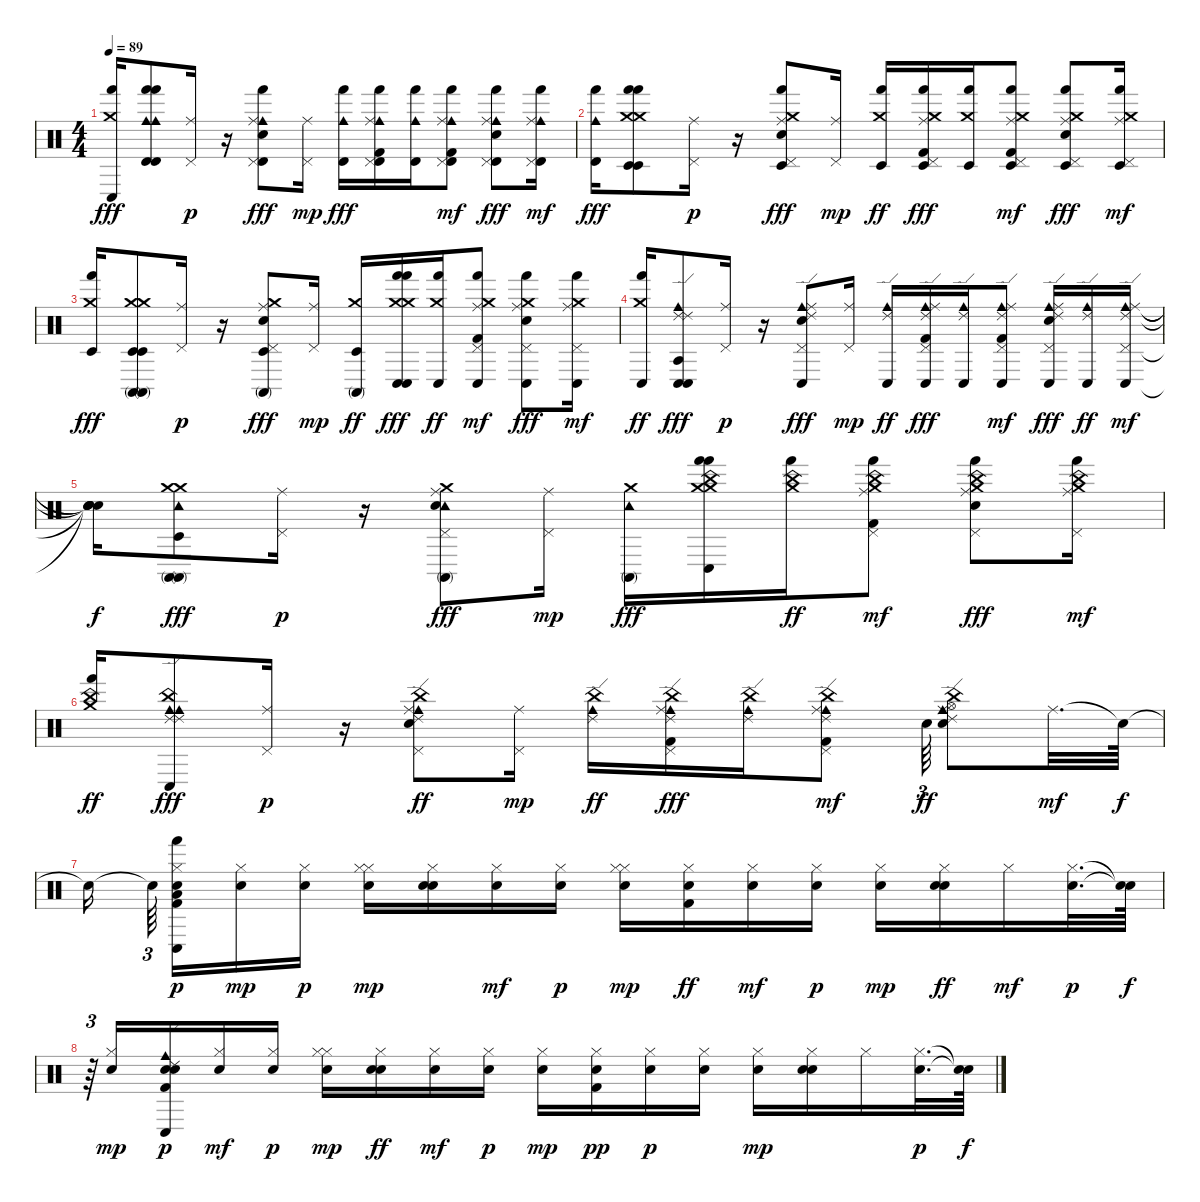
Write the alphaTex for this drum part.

\track "" {instrument percussion}
\staff {score}
\articulation defaults
\ts (4 4)
\tempo 89
\clef neutral
\ks c
("Crash medium (hit)" "Hand (hit)" "Conga low (hit)").16{dy fff} ("Cowbell medium (hit)" "Hand (hit)" "Timbale high (hit)" "Cowbell medium (hit)" "Hand (hit)" "Timbale high (hit)").8 ("Pedal Hi-Hat (hit)" "Ride (middle)").16{dy p} r.16 ("Cowbell medium (hit)" "Hand (hit)" "Timbale high (hit)" "Snare (hit) 2" "Pedal Hi-Hat (hit)" "Ride (middle)").8{dy fff} ("Pedal Hi-Hat (hit)" "Ride (middle)").16{dy mp} ("Cowbell medium (hit)" "Hand (hit)" "Timbale high (hit)").16{dy fff} ("Cowbell medium (hit)" "Hand (hit)" "Timbale high (hit)" "Kick (hit) 2" "Pedal Hi-Hat (hit)" "Ride (middle)").16 ("Cowbell medium (hit)" "Hand (hit)" "Timbale high (hit)").16 ("Cowbell medium (hit)" "Hand (hit)" "Timbale high (hit)" "Kick (hit) 2" "Pedal Hi-Hat (hit)" "Ride (middle)").8{dy mf} ("Cowbell medium (hit)" "Hand (hit)" "Timbale high (hit)" "Snare (hit) 2" "Pedal Hi-Hat (hit)" "Ride (middle)").8{dy fff} ("Cowbell medium (hit)" "Hand (hit)" "Timbale high (hit)" "Pedal Hi-Hat (hit)" "Ride (middle)").16{dy mf} |
("Cowbell medium (hit)" "Hand (hit)" "Timbale high (hit)").16{dy fff} ("Crash medium (hit)" "Hand (hit)" "Timbale low (hit)" "Crash medium (hit)" "Hand (hit)" "Timbale low (hit)").8 ("Pedal Hi-Hat (hit)" "Ride (middle)").16{dy p} r.16 ("Crash medium (hit)" "Hand (hit)" "Timbale low (hit)" "Snare (hit) 2" "Pedal Hi-Hat (hit)" "Ride (middle)").8{dy fff} ("Pedal Hi-Hat (hit)" "Ride (middle)").16{dy mp} ("Crash medium (hit)" "Hand (hit)" "Timbale low (hit)").16{dy ff} ("Crash medium (hit)" "Hand (hit)" "Timbale low (hit)" "Kick (hit) 2" "Pedal Hi-Hat (hit)" "Ride (middle)").16{dy fff} ("Crash medium (hit)" "Hand (hit)" "Timbale low (hit)").16 ("Crash medium (hit)" "Hand (hit)" "Timbale low (hit)" "Kick (hit) 2" "Pedal Hi-Hat (hit)" "Ride (middle)").8{dy mf} ("Crash medium (hit)" "Hand (hit)" "Timbale low (hit)" "Snare (hit) 2" "Pedal Hi-Hat (hit)" "Ride (middle)").8{dy fff} ("Crash medium (hit)" "Hand (hit)" "Timbale low (hit)" "Pedal Hi-Hat (hit)" "Ride (middle)").16{dy mf} |
("Crash medium (hit)" "Hand (hit)" "Timbale low (hit)").16{dy fff} ("Crash medium (hit)" "Conga high (mute)" "Timbale low (hit)" "Crash medium (hit)" "Conga high (mute)" "Timbale low (hit)").8 ("Pedal Hi-Hat (hit)" "Ride (middle)").16{dy p} r.16 ("Crash medium (hit)" "Conga high (mute)" "Timbale low (hit)" "Snare (hit) 2" "Pedal Hi-Hat (hit)" "Ride (middle)").8{dy fff} ("Pedal Hi-Hat (hit)" "Ride (middle)").16{dy mp} ("Crash medium (hit)" "Conga high (mute)" "Timbale low (hit)").16{dy ff} ("Crash medium (hit)" "Hand (hit)" "Conga low (hit)" "Crash medium (hit)" "Hand (hit)" "Conga low (hit)").16{dy fff} ("Crash medium (hit)" "Hand (hit)" "Conga low (hit)").16{dy ff} ("Crash medium (hit)" "Hand (hit)" "Conga low (hit)" "Kick (hit) 2" "Pedal Hi-Hat (hit)" "Ride (middle)").8{dy mf} ("Crash medium (hit)" "Hand (hit)" "Conga low (hit)" "Snare (hit) 2" "Pedal Hi-Hat (hit)" "Ride (middle)").8{dy fff} ("Crash medium (hit)" "Hand (hit)" "Conga low (hit)" "Pedal Hi-Hat (hit)" "Ride (middle)").16{dy mf} |
("Crash medium (hit)" "Hand (hit)" "Conga low (hit)").16{dy ff} ("Ride (edge) 2" "Conga low (hit)" "Agogo tow (hit)" "Cowbell medium (hit)" "Ride (edge) 2" "Conga low (hit)").8{dy fff} ("Pedal Hi-Hat (hit)" "Ride (middle)").16{dy p} r.16 ("Cowbell medium (hit)" "Ride (edge) 2" "Conga low (hit)" "Snare (hit) 2" "Pedal Hi-Hat (hit)" "Ride (middle)").8{dy fff} ("Pedal Hi-Hat (hit)" "Ride (middle)").16{dy mp} ("Cowbell medium (hit)" "Ride (edge) 2" "Conga low (hit)").16{dy ff} ("Cowbell medium (hit)" "Ride (edge) 2" "Conga low (hit)" "Kick (hit) 2" "Pedal Hi-Hat (hit)" "Ride (middle)").16{dy fff} ("Cowbell medium (hit)" "Ride (edge) 2" "Conga low (hit)").16 ("Cowbell medium (hit)" "Ride (edge) 2" "Conga low (hit)" "Kick (hit) 2" "Pedal Hi-Hat (hit)" "Ride (middle)").8{dy mf} ("Cowbell medium (hit)" "Ride (edge) 2" "Conga low (hit)" "Snare (hit) 2" "Pedal Hi-Hat (hit)" "Ride (middle)").16{dy fff} ("Cowbell medium (hit)" "Ride (edge) 2" "Conga low (hit)").16{dy ff} ("Cowbell medium (hit)" "Ride (edge) 2" "Conga low (hit)" "Pedal Hi-Hat (hit)" "Ride (middle)").16{dy mf} |
("Snare (hit)"{t} "Snare (hit)"{t} "Snare (hit)"{t} "Snare (hit)"{t} "Snare (hit)"{t}).16{dy f} ("Crash medium (hit)" "Conga high (mute)" "Timbale low (hit)" "Tambourine (hit)" "Crash medium (hit)" "Conga high (mute)").8{dy fff} ("Pedal Hi-Hat (hit)" "Ride (middle)").16{dy p} r.16 ("Tambourine (hit)" "Crash medium (hit)" "Conga high (mute)" "Snare (hit) 2" "Pedal Hi-Hat (hit)" "Ride (middle)").8{dy fff} ("Pedal Hi-Hat (hit)" "Ride (middle)").16{dy mp} ("Tambourine (hit)" "Crash medium (hit)" "Conga high (mute)").16{dy fff} ("Crash medium (hit)" "Hand (hit)" "Conga low (hit)" "China (hit)" "Crash medium (hit)" "Hand (hit)").16 ("China (hit)" "Crash medium (hit)" "Hand (hit)").16{dy ff} ("China (hit)" "Crash medium (hit)" "Hand (hit)" "Kick (hit) 2" "Pedal Hi-Hat (hit)" "Ride (middle)").8{dy mf} ("China (hit)" "Crash medium (hit)" "Hand (hit)" "Snare (hit) 2" "Pedal Hi-Hat (hit)" "Ride (middle)").8{dy fff} ("China (hit)" "Crash medium (hit)" "Hand (hit)" "Pedal Hi-Hat (hit)" "Ride (middle)").16{dy mf} |
("China (hit)" "Crash medium (hit)" "Hand (hit)").16{dy ff} ("Cowbell medium (hit)" "Ride (edge) 2" "Conga low (hit)" "China (hit)" "Cowbell medium (hit)" "Ride (edge) 2").8{dy fff} ("Pedal Hi-Hat (hit)" "Ride (middle)").16{dy p} r.16 ("China (hit)" "Cowbell medium (hit)" "Ride (edge) 2" "Snare (hit) 2" "Pedal Hi-Hat (hit)" "Ride (middle)").8{dy ff} ("Pedal Hi-Hat (hit)" "Ride (middle)").16{dy mp} ("China (hit)" "Cowbell medium (hit)" "Ride (edge) 2").16{dy ff} ("China (hit)" "Cowbell medium (hit)" "Ride (edge) 2" "Kick (hit) 2" "Pedal Hi-Hat (hit)" "Ride (middle)").16{dy fff} ("China (hit)" "Cowbell medium (hit)" "Ride (edge) 2").16 ("China (hit)" "Cowbell medium (hit)" "Ride (edge) 2" "Kick (hit) 2" "Pedal Hi-Hat (hit)" "Ride (middle)").8{dy mf} "Electric Snare (hit)".64{tu (3 2) dy ff} ("China (hit)" "Cowbell medium (hit)" "Ride (edge) 2" "Snare (hit) 2" "Hi-Hat (open)" "Ride (middle)").8 "Ride (middle)".32{d dy mf} "Snare (hit)"{t}.64{dy f} |
"Snare (hit)"{t}.16{beam splitsecondary} "Snare (hit)"{t}.64{tu (3 2) beam splitsecondary} ("Low Tom (hit)" "Hand (hit)" "Conga low (hit)" "Kick (hit) 2" "Electric Snare (hit)" "Hi-Hat (closed)").16{dy p} ("Electric Snare (hit)" "Hi-Hat (closed)").16{dy mp} ("Electric Snare (hit)" "Hi-Hat (closed)").16{dy p} ("Electric Snare (hit)" "Hi-Hat (closed)" "Hi-Hat (closed)").16{dy mp} ("Snare (hit) 2" "Electric Snare (hit)" "Hi-Hat (closed)").16 ("Electric Snare (hit)" "Hi-Hat (closed)").16{dy mf} ("Electric Snare (hit)" "Hi-Hat (closed)").16{dy p} ("Electric Snare (hit)" "Hi-Hat (closed)" "Hi-Hat (closed)").16{dy mp} ("Kick (hit) 2" "Electric Snare (hit)" "Hi-Hat (closed)").16{dy ff} ("Electric Snare (hit)" "Hi-Hat (closed)").16{dy mf} ("Electric Snare (hit)" "Hi-Hat (closed)").16{dy p} ("Electric Snare (hit)" "Hi-Hat (closed)").16{dy mp} ("Snare (hit) 2" "Electric Snare (hit)" "Hi-Hat (closed)").16{dy ff} "Hi-Hat (closed)".16{dy mf} ("Electric Snare (hit)" "Hi-Hat (closed)").32{d dy p} ("Snare (hit)"{t} "Snare (hit)"{t}).64{dy f} |
r.64{tu (3 2)} ("Electric Snare (hit)" "Hi-Hat (closed)").16{dy mp} ("Electric Snare (hit)" "Cowbell medium (hit)" "Ride (edge) 2" "Conga low (hit)" "Kick (hit) 2" "Electric Snare (hit)").16{dy p} ("Electric Snare (hit)" "Hi-Hat (closed)").16{dy mf} ("Electric Snare (hit)" "Hi-Hat (closed)").16{dy p} ("Electric Snare (hit)" "Hi-Hat (closed)" "Hi-Hat (closed)").16{dy mp} ("Snare (hit) 2" "Electric Snare (hit)" "Hi-Hat (closed)").16{dy ff} ("Electric Snare (hit)" "Hi-Hat (closed)").16{dy mf} ("Electric Snare (hit)" "Hi-Hat (closed)").16{dy p} ("Electric Snare (hit)" "Hi-Hat (closed)").16{dy mp} ("Kick (hit) 2" "Electric Snare (hit)" "Hi-Hat (closed)").16{dy pp} ("Electric Snare (hit)" "Hi-Hat (closed)").16{dy p} ("Electric Snare (hit)" "Hi-Hat (closed)").16 ("Electric Snare (hit)" "Hi-Hat (closed)").16{dy mp} ("Snare (hit) 2" "Electric Snare (hit)" "Hi-Hat (closed)").16 "Hi-Hat (closed)".16 ("Electric Snare (hit)" "Hi-Hat (closed)").32{d dy p} ("Snare (hit)"{t} "Snare (hit)"{t}).64{dy f}
